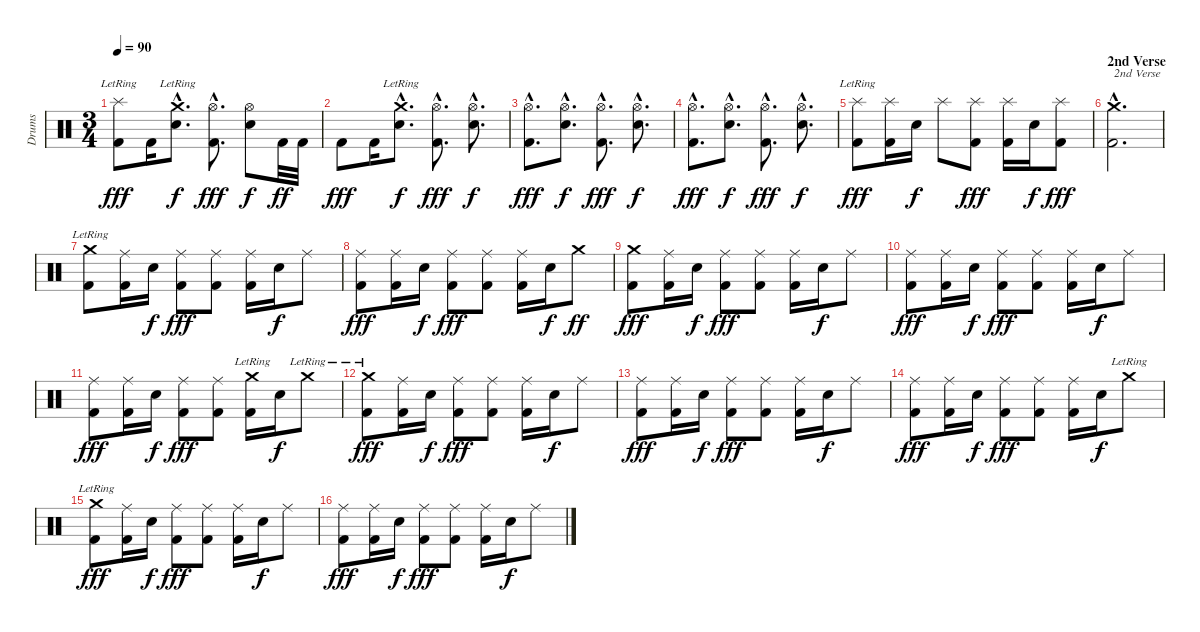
\track ("Drums" "Drums") {instrument percussion}
\staff {score}
\articulation defaults
\ts (3 4)
\tempo 90
\clef neutral
\ks c
("Splash (hit)"{lr} "Kick (hit) 2").8{dy fff} "Kick (hit) 2".16 ("Crash medium (hit)"{hac lr} "Snare (hit) 2"{hac}).8{d dy f} ("Hi-Hat (open)"{hac} "Kick (hit) 2"{hac}).8{d dy fff} ("Hi-Hat (open)" "Snare (hit) 2").8{dy f} "Kick (hit) 2".32{dy ff} "Kick (hit) 2".32 |
"Kick (hit) 2".8{dy fff} "Kick (hit) 2".16 ("Crash medium (hit)"{hac lr} "Snare (hit) 2"{hac}).8{d dy f} ("Hi-Hat (open)"{hac} "Kick (hit) 2"{hac}).8{d dy fff} ("Hi-Hat (open)"{hac} "Snare (hit) 2"{hac}).8{d dy f} |
("Hi-Hat (open)"{hac} "Kick (hit) 2"{hac}).8{d dy fff} ("Hi-Hat (open)"{hac} "Snare (hit) 2"{hac}).8{d dy f} ("Hi-Hat (open)"{hac} "Kick (hit) 2"{hac}).8{d dy fff} ("Hi-Hat (open)"{hac} "Snare (hit) 2"{hac}).8{d dy f} |
("Hi-Hat (open)"{hac} "Kick (hit) 2"{hac}).8{d dy fff} ("Hi-Hat (open)"{hac} "Snare (hit) 2"{hac}).8{d dy f} ("Hi-Hat (open)"{hac} "Kick (hit) 2"{hac}).8{d dy fff} ("Hi-Hat (open)"{hac} "Snare (hit) 2"{hac}).8{d dy f} |
("Splash (hit)"{lr} "Kick (hit) 2").8{dy fff} ("Splash (hit)" "Kick (hit) 2").16 "Snare (hit) 2".16{dy f} "Splash (hit)".8 ("Splash (hit)" "Kick (hit) 2").8{dy fff} ("Splash (hit)" "Kick (hit) 2").16 "Snare (hit) 2".16{dy f} ("Splash (hit)" "Kick (hit) 2").8{dy fff} |
\section ("" "2nd Verse")
("Crash medium (hit)"{hac} "Kick (hit) 2"{hac}).2{d txt "2nd Verse"} |
("Crash medium (hit)"{lr} "Kick (hit) 2").8 ("Ride (middle)" "Kick (hit) 2").16 "Snare (hit) 2".16{dy f} ("Ride (middle)" "Kick (hit) 2").8{dy fff} ("Ride (middle)" "Kick (hit) 2").8 ("Ride (middle)" "Kick (hit) 2").16 "Snare (hit) 2".16{dy f} "Ride (middle)".8 |
("Ride (middle)" "Kick (hit) 2").8{dy fff} ("Ride (middle)" "Kick (hit) 2").16 "Snare (hit) 2".16{dy f} ("Ride (middle)" "Kick (hit) 2").8{dy fff} ("Ride (middle)" "Kick (hit) 2").8 ("Ride (middle)" "Kick (hit) 2").16 "Snare (hit) 2".16{dy f} "Crash medium (hit)".8{dy ff} |
("Crash medium (hit)" "Kick (hit) 2").8{dy fff} ("Ride (middle)" "Kick (hit) 2").16 "Snare (hit) 2".16{dy f} ("Ride (middle)" "Kick (hit) 2").8{dy fff} ("Ride (middle)" "Kick (hit) 2").8 ("Ride (middle)" "Kick (hit) 2").16 "Snare (hit) 2".16{dy f} "Ride (middle)".8 |
("Ride (middle)" "Kick (hit) 2").8{dy fff} ("Ride (middle)" "Kick (hit) 2").16 "Snare (hit) 2".16{dy f} ("Ride (middle)" "Kick (hit) 2").8{dy fff} ("Ride (middle)" "Kick (hit) 2").8 ("Ride (middle)" "Kick (hit) 2").16 "Snare (hit) 2".16{dy f} "Ride (middle)".8 |
("Ride (middle)" "Kick (hit) 2").8{dy fff} ("Ride (middle)" "Kick (hit) 2").16 "Snare (hit) 2".16{dy f} ("Ride (middle)" "Kick (hit) 2").8{dy fff} ("Ride (middle)" "Kick (hit) 2").8 ("Crash medium (hit)"{lr} "Kick (hit) 2").16 "Snare (hit) 2".16{dy f} "Crash medium (hit)"{lr}.8 |
("Crash medium (hit)"{lr} "Kick (hit) 2").8{dy fff} ("Ride (middle)" "Kick (hit) 2").16 "Snare (hit) 2".16{dy f} ("Ride (middle)" "Kick (hit) 2").8{dy fff} ("Ride (middle)" "Kick (hit) 2").8 ("Ride (middle)" "Kick (hit) 2").16 "Snare (hit) 2".16{dy f} "Ride (middle)".8 |
("Ride (middle)" "Kick (hit) 2").8{dy fff} ("Ride (middle)" "Kick (hit) 2").16 "Snare (hit) 2".16{dy f} ("Ride (middle)" "Kick (hit) 2").8{dy fff} ("Ride (middle)" "Kick (hit) 2").8 ("Ride (middle)" "Kick (hit) 2").16 "Snare (hit) 2".16{dy f} "Ride (middle)".8 |
("Ride (middle)" "Kick (hit) 2").8{dy fff} ("Ride (middle)" "Kick (hit) 2").16 "Snare (hit) 2".16{dy f} ("Ride (middle)" "Kick (hit) 2").8{dy fff} ("Ride (middle)" "Kick (hit) 2").8 ("Ride (middle)" "Kick (hit) 2").16 "Snare (hit) 2".16{dy f} "Crash medium (hit)"{lr}.8 |
("Crash medium (hit)"{lr} "Kick (hit) 2").8{dy fff} ("Ride (middle)" "Kick (hit) 2").16 "Snare (hit) 2".16{dy f} ("Ride (middle)" "Kick (hit) 2").8{dy fff} ("Ride (middle)" "Kick (hit) 2").8 ("Ride (middle)" "Kick (hit) 2").16 "Snare (hit) 2".16{dy f} "Ride (middle)".8 |
("Ride (middle)" "Kick (hit) 2").8{dy fff} ("Ride (middle)" "Kick (hit) 2").16 "Snare (hit) 2".16{dy f} ("Ride (middle)" "Kick (hit) 2").8{dy fff} ("Ride (middle)" "Kick (hit) 2").8 ("Ride (middle)" "Kick (hit) 2").16 "Snare (hit) 2".16{dy f} "Ride (middle)".8
